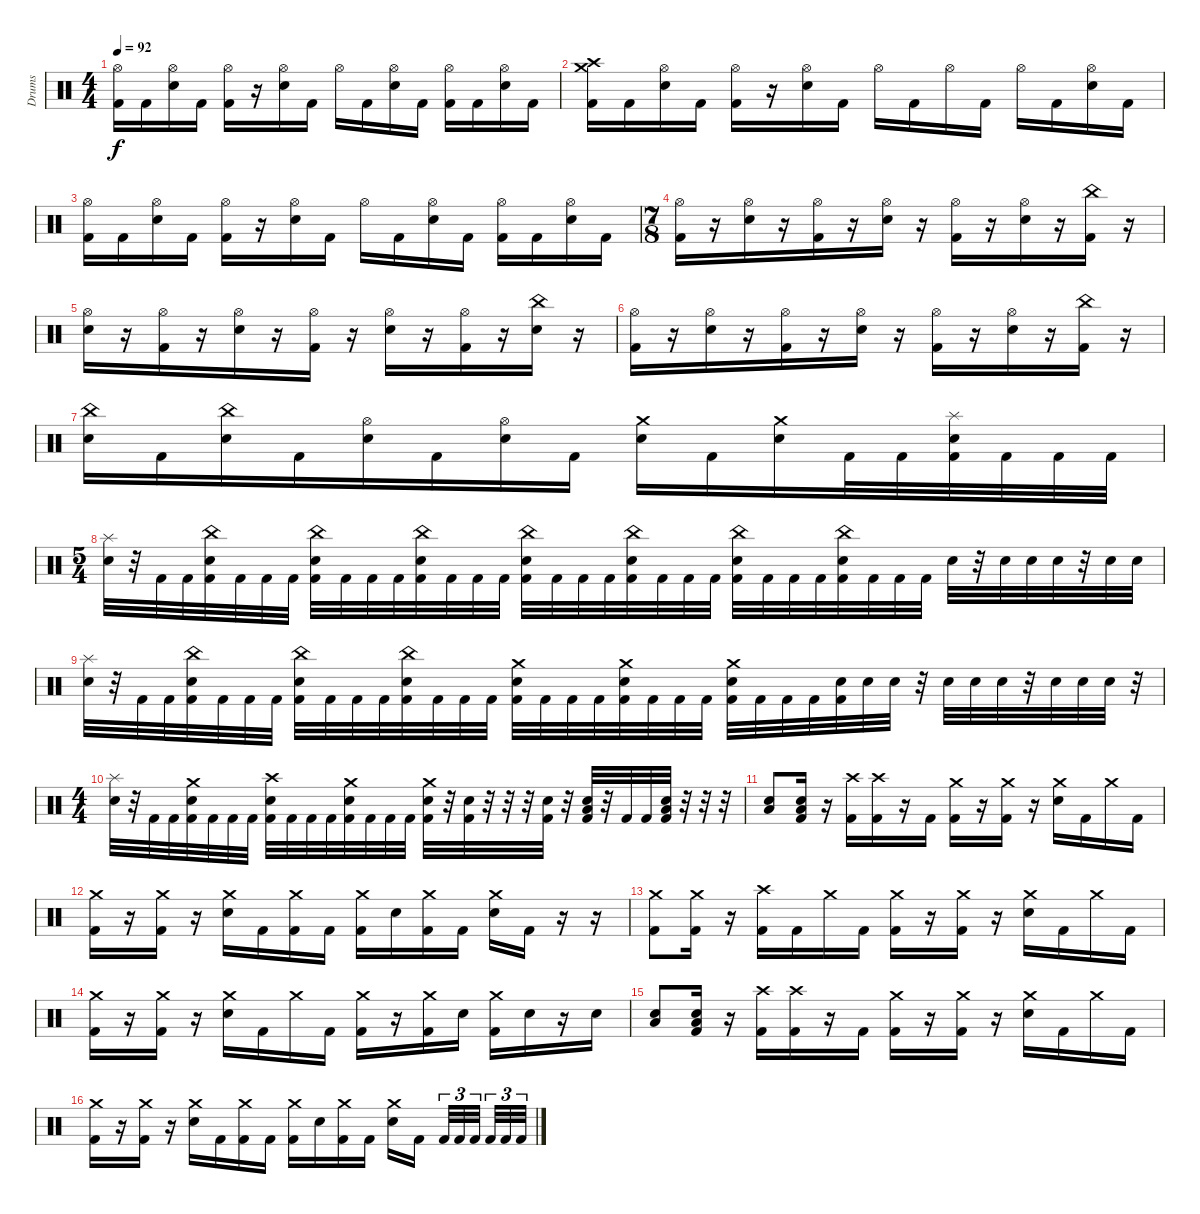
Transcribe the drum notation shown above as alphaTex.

\track ("Drums" "Drums") {instrument percussion}
\staff {score}
\articulation defaults
\ts (4 4)
\tempo 92
\clef neutral
\ks c
("Hi-Hat (open)" "Kick (hit) 2").16{dy f} "Kick (hit) 2".16 ("Hi-Hat (open)" "Snare (hit) 2").16 "Kick (hit) 2".16 ("Hi-Hat (open)" "Kick (hit) 2").16 r.16 ("Hi-Hat (open)" "Snare (hit) 2").16 "Kick (hit) 2".16 "Hi-Hat (open)".16 "Kick (hit) 2".16 ("Hi-Hat (open)" "Snare (hit) 2").16 "Kick (hit) 2".16 ("Hi-Hat (open)" "Kick (hit) 2").16 "Kick (hit) 2".16 ("Hi-Hat (open)" "Snare (hit) 2").16 "Kick (hit) 2".16 |
("Crash high (hit)" "Crash medium (hit)" "Kick (hit) 2").16 "Kick (hit) 2".16 ("Hi-Hat (open)" "Snare (hit) 2").16 "Kick (hit) 2".16 ("Hi-Hat (open)" "Kick (hit) 2").16 r.16 ("Hi-Hat (open)" "Snare (hit) 2").16 "Kick (hit) 2".16 "Hi-Hat (open)".16 "Kick (hit) 2".16 "Hi-Hat (open)".16 "Kick (hit) 2".16 "Hi-Hat (open)".16 "Kick (hit) 2".16 ("Hi-Hat (open)" "Snare (hit) 2").16 "Kick (hit) 2".16 |
("Hi-Hat (open)" "Kick (hit) 2").16 "Kick (hit) 2".16 ("Hi-Hat (open)" "Snare (hit) 2").16 "Kick (hit) 2".16 ("Hi-Hat (open)" "Kick (hit) 2").16 r.16 ("Hi-Hat (open)" "Snare (hit) 2").16 "Kick (hit) 2".16 "Hi-Hat (open)".16 "Kick (hit) 2".16 ("Hi-Hat (open)" "Snare (hit) 2").16 "Kick (hit) 2".16 ("Hi-Hat (open)" "Kick (hit) 2").16 "Kick (hit) 2".16 ("Hi-Hat (open)" "Snare (hit) 2").16 "Kick (hit) 2".16 |
\ts (7 8)
("Hi-Hat (open)" "Kick (hit) 2").16 r.16 ("Hi-Hat (open)" "Snare (hit) 2").16 r.16 ("Hi-Hat (open)" "Kick (hit) 2").16 r.16 ("Hi-Hat (open)" "Snare (hit) 2").16 r.16 ("Hi-Hat (open)" "Kick (hit) 2").16 r.16 ("Hi-Hat (open)" "Snare (hit) 2").16 r.16 ("China (hit)" "Kick (hit) 2").16 r.16 |
("Hi-Hat (open)" "Snare (hit) 2").16 r.16 ("Hi-Hat (open)" "Kick (hit) 2").16 r.16 ("Hi-Hat (open)" "Snare (hit) 2").16 r.16 ("Hi-Hat (open)" "Kick (hit) 2").16 r.16 ("Hi-Hat (open)" "Snare (hit) 2").16 r.16 ("Hi-Hat (open)" "Kick (hit) 2").16 r.16 ("China (hit)" "Snare (hit) 2").16 r.16 |
("Hi-Hat (open)" "Kick (hit) 2").16 r.16 ("Hi-Hat (open)" "Snare (hit) 2").16 r.16 ("Hi-Hat (open)" "Kick (hit) 2").16 r.16 ("Hi-Hat (open)" "Snare (hit) 2").16 r.16 ("Hi-Hat (open)" "Kick (hit) 2").16 r.16 ("Hi-Hat (open)" "Snare (hit) 2").16 r.16 ("China (hit)" "Kick (hit) 2").16 r.16 |
("China (hit)" "Snare (hit) 2").16 "Kick (hit) 2".16 ("China (hit)" "Snare (hit) 2").16 "Kick (hit) 2".16 ("Hi-Hat (open)" "Snare (hit) 2").16 "Kick (hit) 2".16 ("Hi-Hat (open)" "Snare (hit) 2").16 "Kick (hit) 2".16 ("Crash medium (hit)" "Snare (hit) 2").16 "Kick (hit) 2".16 ("Crash medium (hit)" "Snare (hit) 2").16 "Kick (hit) 2".32 "Kick (hit) 2".32 ("Splash (hit)" "Snare (hit) 2" "Kick (hit) 2").32 "Kick (hit) 2".32 "Kick (hit) 2".32 "Kick (hit) 2".32 |
\ts (5 4)
("Splash (hit)" "Snare (hit) 2").32 r.32 "Kick (hit) 2".32 "Kick (hit) 2".32 ("China (hit)" "Snare (hit) 2" "Kick (hit) 2").32 "Kick (hit) 2".32 "Kick (hit) 2".32 "Kick (hit) 2".32 ("China (hit)" "Snare (hit) 2" "Kick (hit) 2").32 "Kick (hit) 2".32 "Kick (hit) 2".32 "Kick (hit) 2".32 ("China (hit)" "Snare (hit) 2" "Kick (hit) 2").32 "Kick (hit) 2".32 "Kick (hit) 2".32 "Kick (hit) 2".32 ("China (hit)" "Snare (hit) 2" "Kick (hit) 2").32 "Kick (hit) 2".32 "Kick (hit) 2".32 "Kick (hit) 2".32 ("China (hit)" "Snare (hit) 2" "Kick (hit) 2").32 "Kick (hit) 2".32 "Kick (hit) 2".32 "Kick (hit) 2".32 ("China (hit)" "Snare (hit) 2" "Kick (hit) 2").32 "Kick (hit) 2".32 "Kick (hit) 2".32 "Kick (hit) 2".32 ("China (hit)" "Snare (hit) 2" "Kick (hit) 2").32 "Kick (hit) 2".32 "Kick (hit) 2".32 "Kick (hit) 2".32 "Snare (hit) 2".32 r.32 "Snare (hit) 2".32 "Snare (hit) 2".32 "Snare (hit) 2".32 r.32 "Snare (hit) 2".32 "Snare (hit) 2".32 |
("Splash (hit)" "Snare (hit) 2").32 r.32 "Kick (hit) 2".32 "Kick (hit) 2".32 ("China (hit)" "Snare (hit) 2" "Kick (hit) 2").32 "Kick (hit) 2".32 "Kick (hit) 2".32 "Kick (hit) 2".32 ("China (hit)" "Snare (hit) 2" "Kick (hit) 2").32 "Kick (hit) 2".32 "Kick (hit) 2".32 "Kick (hit) 2".32 ("China (hit)" "Snare (hit) 2" "Kick (hit) 2").32 "Kick (hit) 2".32 "Kick (hit) 2".32 "Kick (hit) 2".32 ("Crash medium (hit)" "Snare (hit) 2" "Kick (hit) 2").32 "Kick (hit) 2".32 "Kick (hit) 2".32 "Kick (hit) 2".32 ("Crash medium (hit)" "Snare (hit) 2" "Kick (hit) 2").32 "Kick (hit) 2".32 "Kick (hit) 2".32 "Kick (hit) 2".32 ("Crash medium (hit)" "Snare (hit) 2" "Kick (hit) 2").32 "Kick (hit) 2".32 "Kick (hit) 2".32 "Kick (hit) 2".32 ("Snare (hit) 2" "Kick (hit) 2").32 "Snare (hit) 2".32 "Snare (hit) 2".32 r.32 "Snare (hit) 2".32 "Snare (hit) 2".32 "Snare (hit) 2".32 r.32 "Snare (hit) 2".32 "Snare (hit) 2".32 "Snare (hit) 2".32 r.32 |
\ts (4 4)
("Splash (hit)" "Snare (hit) 2").32 r.32 "Kick (hit) 2".32 "Kick (hit) 2".32 ("Crash medium (hit)" "Snare (hit) 2" "Kick (hit) 2").32 "Kick (hit) 2".32 "Kick (hit) 2".32 "Kick (hit) 2".32 ("Crash high (hit)" "Snare (hit) 2" "Kick (hit) 2").32 "Kick (hit) 2".32 "Kick (hit) 2".32 "Kick (hit) 2".32 ("Crash medium (hit)" "Snare (hit) 2" "Kick (hit) 2").32 "Kick (hit) 2".32 "Kick (hit) 2".32 "Kick (hit) 2".32 ("Crash medium (hit)" "Snare (hit) 2" "Kick (hit) 2").32 r.32 ("Snare (hit) 2" "Kick (hit) 2").32 r.32 r.32 r.32 ("Snare (hit) 2" "Kick (hit) 2").32 r.32 ("Low Floor Tom (hit)" "Snare (hit) 2" "Kick (hit) 2").32 r.32 "Kick (hit) 2".32 "Kick (hit) 2".32 ("Low Floor Tom (hit)" "Snare (hit) 2" "Kick (hit) 2").32 r.32 r.32 r.32 |
("Low Floor Tom (hit)" "Snare (hit) 2").8 ("Low Floor Tom (hit)" "Snare (hit) 2" "Kick (hit) 2").16 r.16 ("Crash high (hit)" "Kick (hit) 2").16 ("Crash high (hit)" "Kick (hit) 2").16 r.16 "Kick (hit) 2".16 ("Crash medium (hit)" "Kick (hit) 2").16 r.16 ("Crash medium (hit)" "Kick (hit) 2").16 r.16 ("Crash medium (hit)" "Snare (hit) 2").16 "Kick (hit) 2".16 "Crash medium (hit)".16 "Kick (hit) 2".16 |
("Crash medium (hit)" "Kick (hit) 2").16 r.16 ("Crash medium (hit)" "Kick (hit) 2").16 r.16 ("Crash medium (hit)" "Snare (hit) 2").16 "Kick (hit) 2".16 ("Crash medium (hit)" "Kick (hit) 2").16 "Kick (hit) 2".16 ("Crash medium (hit)" "Kick (hit) 2").16 "Snare (hit) 2".16 ("Crash medium (hit)" "Kick (hit) 2").16 "Kick (hit) 2".16 ("Crash medium (hit)" "Snare (hit) 2").16 "Kick (hit) 2".16 r.16 r.16 |
("Crash medium (hit)" "Kick (hit) 2").8 ("Crash medium (hit)" "Kick (hit) 2").16 r.16 ("Crash high (hit)" "Kick (hit) 2").16 "Kick (hit) 2".16 "Crash medium (hit)".16 "Kick (hit) 2".16 ("Crash medium (hit)" "Kick (hit) 2").16 r.16 ("Crash medium (hit)" "Kick (hit) 2").16 r.16 ("Crash medium (hit)" "Snare (hit) 2").16 "Kick (hit) 2".16 "Crash medium (hit)".16 "Kick (hit) 2".16 |
("Crash medium (hit)" "Kick (hit) 2").16 r.16 ("Crash medium (hit)" "Kick (hit) 2").16 r.16 ("Crash medium (hit)" "Snare (hit) 2").16 "Kick (hit) 2".16 "Crash medium (hit)".16 "Kick (hit) 2".16 ("Crash medium (hit)" "Kick (hit) 2").16 r.16 ("Crash medium (hit)" "Kick (hit) 2").16 "Snare (hit) 2".16 ("Crash medium (hit)" "Kick (hit) 2").16 "Snare (hit) 2".16 r.16 "Snare (hit) 2".16 |
("Low Floor Tom (hit)" "Snare (hit) 2").8 ("Low Floor Tom (hit)" "Snare (hit) 2" "Kick (hit) 2").16 r.16 ("Crash high (hit)" "Kick (hit) 2").16 ("Crash high (hit)" "Kick (hit) 2").16 r.16 "Kick (hit) 2".16 ("Crash medium (hit)" "Kick (hit) 2").16 r.16 ("Crash medium (hit)" "Kick (hit) 2").16 r.16 ("Crash medium (hit)" "Snare (hit) 2").16 "Kick (hit) 2".16 "Crash medium (hit)".16 "Kick (hit) 2".16 |
("Crash medium (hit)" "Kick (hit) 2").16 r.16 ("Crash medium (hit)" "Kick (hit) 2").16 r.16 ("Crash medium (hit)" "Snare (hit) 2").16 "Kick (hit) 2".16 ("Crash medium (hit)" "Kick (hit) 2").16 "Kick (hit) 2".16 ("Crash medium (hit)" "Kick (hit) 2").16 "Snare (hit) 2".16 ("Crash medium (hit)" "Kick (hit) 2").16 "Kick (hit) 2".16 ("Crash medium (hit)" "Snare (hit) 2").16 "Kick (hit) 2".16 "Kick (hit) 2".32{tu (3 2)} "Kick (hit) 2".32{tu (3 2)} "Kick (hit) 2".32{tu (3 2)} "Kick (hit) 2".32{tu (3 2)} "Kick (hit) 2".32{tu (3 2)} "Kick (hit) 2".32{tu (3 2)}
